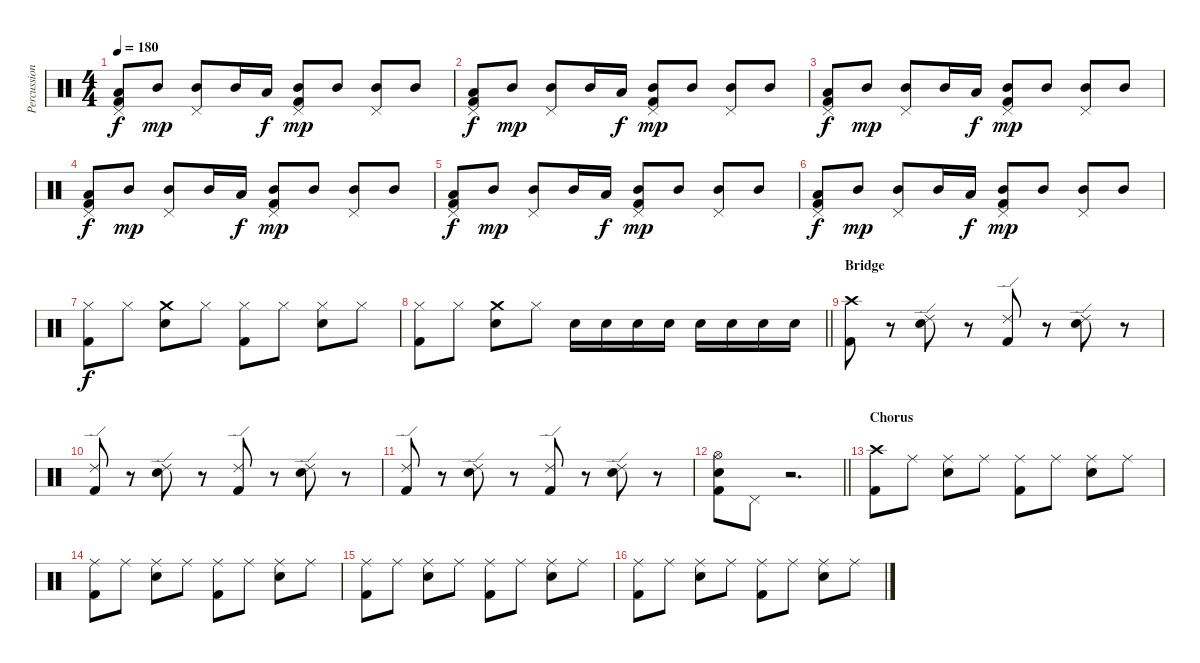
\track ("Percussion" "Percussion") {instrument percussion}
\staff {score}
\articulation defaults
\ts (4 4)
\tempo 180
\clef neutral
\ks c
("Pedal Hi-Hat (hit)" "Low Floor Tom (hit)" "Kick (hit) 2").8{dy f} "Mid Tom (hit)".8{dy mp} ("Pedal Hi-Hat (hit)" "Mid Tom (hit)").8 "Mid Tom (hit)".16 "Low Floor Tom (hit)".16{dy f} ("Pedal Hi-Hat (hit)" "Mid Tom (hit)" "Kick (hit) 2").8{dy mp} "Mid Tom (hit)".8 ("Pedal Hi-Hat (hit)" "Mid Tom (hit)").8 "Mid Tom (hit)".8 |
("Pedal Hi-Hat (hit)" "Low Floor Tom (hit)" "Kick (hit) 2").8{dy f} "Mid Tom (hit)".8{dy mp} ("Pedal Hi-Hat (hit)" "Mid Tom (hit)").8 "Mid Tom (hit)".16 "Low Floor Tom (hit)".16{dy f} ("Pedal Hi-Hat (hit)" "Mid Tom (hit)" "Kick (hit) 2").8{dy mp} "Mid Tom (hit)".8 ("Pedal Hi-Hat (hit)" "Mid Tom (hit)").8 "Mid Tom (hit)".8 |
("Pedal Hi-Hat (hit)" "Low Floor Tom (hit)" "Kick (hit) 2").8{dy f} "Mid Tom (hit)".8{dy mp} ("Pedal Hi-Hat (hit)" "Mid Tom (hit)").8 "Mid Tom (hit)".16 "Low Floor Tom (hit)".16{dy f} ("Pedal Hi-Hat (hit)" "Mid Tom (hit)" "Kick (hit) 2").8{dy mp} "Mid Tom (hit)".8 ("Pedal Hi-Hat (hit)" "Mid Tom (hit)").8 "Mid Tom (hit)".8 |
("Pedal Hi-Hat (hit)" "Low Floor Tom (hit)" "Kick (hit) 2").8{dy f} "Mid Tom (hit)".8{dy mp} ("Pedal Hi-Hat (hit)" "Mid Tom (hit)").8 "Mid Tom (hit)".16 "Low Floor Tom (hit)".16{dy f} ("Pedal Hi-Hat (hit)" "Mid Tom (hit)" "Kick (hit) 2").8{dy mp} "Mid Tom (hit)".8 ("Pedal Hi-Hat (hit)" "Mid Tom (hit)").8 "Mid Tom (hit)".8 |
("Pedal Hi-Hat (hit)" "Low Floor Tom (hit)" "Kick (hit) 2").8{dy f} "Mid Tom (hit)".8{dy mp} ("Pedal Hi-Hat (hit)" "Mid Tom (hit)").8 "Mid Tom (hit)".16 "Low Floor Tom (hit)".16{dy f} ("Pedal Hi-Hat (hit)" "Mid Tom (hit)" "Kick (hit) 2").8{dy mp} "Mid Tom (hit)".8 ("Pedal Hi-Hat (hit)" "Mid Tom (hit)").8 "Mid Tom (hit)".8 |
("Pedal Hi-Hat (hit)" "Low Floor Tom (hit)" "Kick (hit) 2").8{dy f} "Mid Tom (hit)".8{dy mp} ("Pedal Hi-Hat (hit)" "Mid Tom (hit)").8 "Mid Tom (hit)".16 "Low Floor Tom (hit)".16{dy f} ("Pedal Hi-Hat (hit)" "Mid Tom (hit)" "Kick (hit) 2").8{dy mp} "Mid Tom (hit)".8 ("Pedal Hi-Hat (hit)" "Mid Tom (hit)").8 "Mid Tom (hit)".8 |
("Hi-Hat (closed)" "Kick (hit) 2").8{dy f} "Hi-Hat (closed)".8 ("Crash medium (hit)" "Snare (hit) 2").8 "Hi-Hat (closed)".8 ("Hi-Hat (closed)" "Kick (hit) 2").8 "Hi-Hat (closed)".8 ("Hi-Hat (closed)" "Snare (hit) 2").8 "Hi-Hat (closed)".8 |
\barLineRight lightlight
("Hi-Hat (closed)" "Kick (hit) 2").8 "Hi-Hat (closed)".8 ("Crash medium (hit)" "Snare (hit) 2").8 "Hi-Hat (closed)".8 "Snare (hit) 2".16 "Snare (hit) 2".16 "Snare (hit) 2".16 "Snare (hit) 2".16 "Snare (hit) 2".16 "Snare (hit) 2".16 "Snare (hit) 2".16 "Snare (hit) 2".16 |
\section ("" "Bridge")
("Crash high (hit)" "Kick (hit) 2").8 r.8 ("Ride (edge) 2" "Snare (hit) 2").8 r.8 ("Ride (edge) 2" "Kick (hit) 2").8 r.8 ("Ride (edge) 2" "Snare (hit) 2").8 r.8 |
("Ride (edge) 2" "Kick (hit) 2").8 r.8 ("Ride (edge) 2" "Snare (hit) 2").8 r.8 ("Ride (edge) 2" "Kick (hit) 2").8 r.8 ("Ride (edge) 2" "Snare (hit) 2").8 r.8 |
("Ride (edge) 2" "Kick (hit) 2").8 r.8 ("Ride (edge) 2" "Snare (hit) 2").8 r.8 ("Ride (edge) 2" "Kick (hit) 2").8 r.8 ("Ride (edge) 2" "Snare (hit) 2").8 r.8 |
\barLineRight lightlight
("Hi-Hat (open)" "Snare (hit) 2" "Kick (hit) 2").8 "Pedal Hi-Hat (hit)".8 r.2{d} |
\section ("" "Chorus")
("Crash high (hit)" "Kick (hit) 2").8 "Ride (middle)".8 ("Ride (middle)" "Snare (hit) 2").8 "Ride (middle)".8 ("Ride (middle)" "Kick (hit) 2").8 "Ride (middle)".8 ("Ride (middle)" "Snare (hit) 2").8 "Ride (middle)".8 |
("Ride (middle)" "Kick (hit) 2").8 "Ride (middle)".8 ("Ride (middle)" "Snare (hit) 2").8 "Ride (middle)".8 ("Ride (middle)" "Kick (hit) 2").8 "Ride (middle)".8 ("Ride (middle)" "Snare (hit) 2").8 "Ride (middle)".8 |
("Ride (middle)" "Kick (hit) 2").8 "Ride (middle)".8 ("Ride (middle)" "Snare (hit) 2").8 "Ride (middle)".8 ("Ride (middle)" "Kick (hit) 2").8 "Ride (middle)".8 ("Ride (middle)" "Snare (hit) 2").8 "Ride (middle)".8 |
("Ride (middle)" "Kick (hit) 2").8 "Ride (middle)".8 ("Ride (middle)" "Snare (hit) 2").8 "Ride (middle)".8 ("Ride (middle)" "Kick (hit) 2").8 "Ride (middle)".8 ("Ride (middle)" "Snare (hit) 2").8 "Ride (middle)".8
